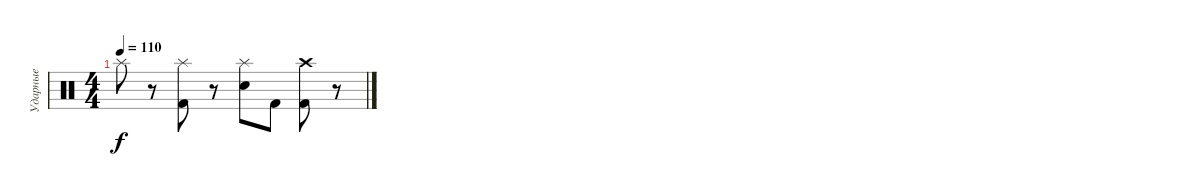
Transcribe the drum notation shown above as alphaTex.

\track ("Ударные" "Ударные") {instrument percussion}
\staff {score}
\articulation defaults
\ts (4 4)
\tempo 110
\clef neutral
\ks c "Splash (hit)".8{dy f}
r.8 ("Splash (hit)" "Kick (hit) 2").8 r.8 ("Splash (hit)" "Electric Snare (hit)").8 "Kick (hit) 2".8 ("Crash high (hit)" "Kick (hit) 2").8 r.8
